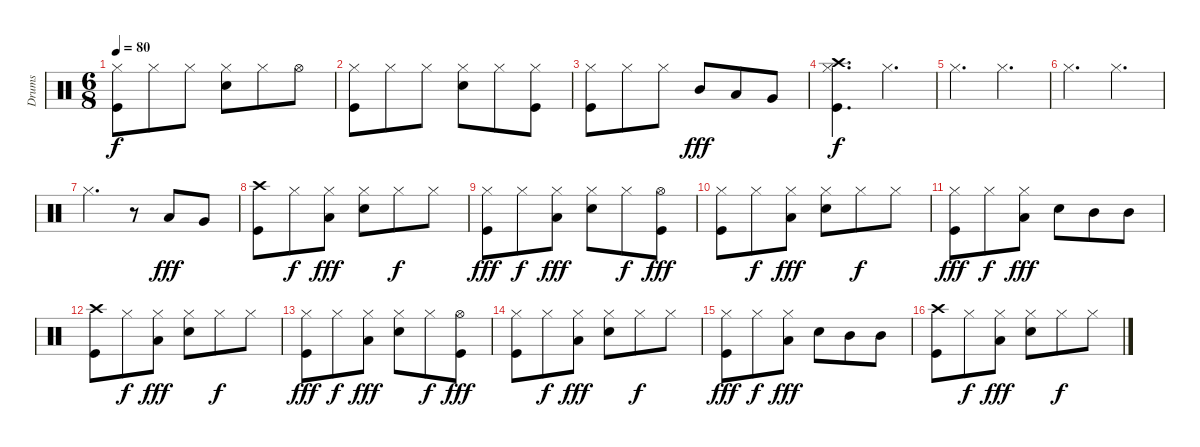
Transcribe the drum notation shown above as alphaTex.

\track ("Drums" "Drums") {instrument percussion}
\staff {score}
\articulation defaults
\ts (6 8)
\tempo 80
\clef neutral
\ks c
("Hi-Hat (closed)" "Kick (hit)").8{dy f} "Hi-Hat (closed)".8 "Hi-Hat (closed)".8 ("Hi-Hat (closed)" "Electric Snare (hit)").8 "Hi-Hat (closed)".8 "Hi-Hat (open)".8 |
("Hi-Hat (closed)" "Kick (hit)").8 "Hi-Hat (closed)".8 "Hi-Hat (closed)".8 ("Hi-Hat (closed)" "Electric Snare (hit)").8 "Hi-Hat (closed)".8 ("Hi-Hat (closed)" "Kick (hit)").8 |
("Hi-Hat (closed)" "Kick (hit)").8 "Hi-Hat (closed)".8 "Hi-Hat (closed)".8 "Mid Tom (hit)".8{dy fff} "Low Tom (hit)".8 "Very Low Tom (hit)".8 |
("Hi-Hat (closed)" "Kick (hit)" "Crash high (hit)").4{d dy f} "Hi-Hat (closed)".4{d} |
"Hi-Hat (closed)".4{d} "Hi-Hat (closed)".4{d} |
"Hi-Hat (closed)".4{d} "Hi-Hat (closed)".4{d} |
"Hi-Hat (closed)".4{d} r.8 "Low Tom (hit)".8{dy fff} "Very Low Tom (hit)".8 |
("Crash high (hit)" "Kick (hit)").8 "Hi-Hat (closed)".8{dy f} ("Hi-Hat (closed)" "Low Tom (hit)").8{dy fff} ("Hi-Hat (closed)" "Electric Snare (hit)").8 "Hi-Hat (closed)".8{dy f} "Hi-Hat (closed)".8 |
("Hi-Hat (closed)" "Kick (hit)").8{dy fff} "Hi-Hat (closed)".8{dy f} ("Hi-Hat (closed)" "Low Tom (hit)").8{dy fff} ("Hi-Hat (closed)" "Electric Snare (hit)").8 "Hi-Hat (closed)".8{dy f} ("Hi-Hat (open)" "Kick (hit)").8{dy fff} |
("Hi-Hat (closed)" "Kick (hit)").8 "Hi-Hat (closed)".8{dy f} ("Hi-Hat (closed)" "Low Tom (hit)").8{dy fff} ("Hi-Hat (closed)" "Electric Snare (hit)").8 "Hi-Hat (closed)".8{dy f} "Hi-Hat (closed)".8 |
("Hi-Hat (closed)" "Kick (hit)").8{dy fff} "Hi-Hat (closed)".8{dy f} ("Hi-Hat (closed)" "Low Tom (hit)").8{dy fff} "Electric Snare (hit)".8 "Mid Tom (hit)".8 "Mid Tom (hit)".8 |
("Crash high (hit)" "Kick (hit)").8 "Hi-Hat (closed)".8{dy f} ("Hi-Hat (closed)" "Low Tom (hit)").8{dy fff} ("Hi-Hat (closed)" "Electric Snare (hit)").8 "Hi-Hat (closed)".8{dy f} "Hi-Hat (closed)".8 |
("Hi-Hat (closed)" "Kick (hit)").8{dy fff} "Hi-Hat (closed)".8{dy f} ("Hi-Hat (closed)" "Low Tom (hit)").8{dy fff} ("Hi-Hat (closed)" "Electric Snare (hit)").8 "Hi-Hat (closed)".8{dy f} ("Hi-Hat (open)" "Kick (hit)").8{dy fff} |
("Hi-Hat (closed)" "Kick (hit)").8 "Hi-Hat (closed)".8{dy f} ("Hi-Hat (closed)" "Low Tom (hit)").8{dy fff} ("Hi-Hat (closed)" "Electric Snare (hit)").8 "Hi-Hat (closed)".8{dy f} "Hi-Hat (closed)".8 |
("Hi-Hat (closed)" "Kick (hit)").8{dy fff} "Hi-Hat (closed)".8{dy f} ("Hi-Hat (closed)" "Low Tom (hit)").8{dy fff} "Electric Snare (hit)".8 "Mid Tom (hit)".8 "Mid Tom (hit)".8 |
("Crash high (hit)" "Kick (hit)").8 "Hi-Hat (closed)".8{dy f} ("Hi-Hat (closed)" "Low Tom (hit)").8{dy fff} ("Hi-Hat (closed)" "Electric Snare (hit)").8 "Hi-Hat (closed)".8{dy f} "Hi-Hat (closed)".8
